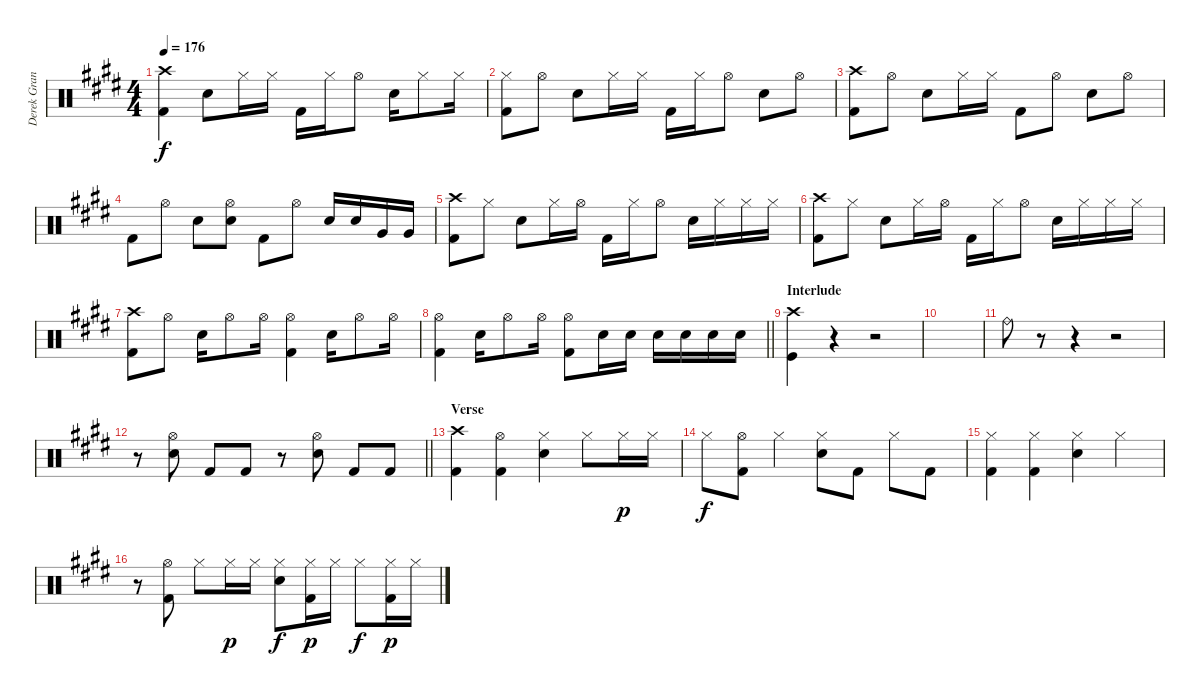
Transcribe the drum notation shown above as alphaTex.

\track ("Derek Grant - Drums" "Derek Gran") {instrument percussion}
\staff {score}
\articulation defaults
\ts (4 4)
\tempo 176
\clef neutral
\ks e
("Crash high (hit)" "Kick (hit) 2").4{dy f} "Snare (hit) 2".8 "Hi-Hat (closed)".16 "Hi-Hat (closed)".16 "Kick (hit) 2".16 "Hi-Hat (closed)".16 "Hi-Hat (open)".8 "Snare (hit) 2".16 "Hi-Hat (closed)".8 "Hi-Hat (closed)".16 |
("Hi-Hat (closed)" "Kick (hit) 2").8 "Hi-Hat (open)".8 "Snare (hit) 2".8 "Hi-Hat (closed)".16 "Hi-Hat (closed)".16 "Kick (hit) 2".16 "Hi-Hat (closed)".16 "Hi-Hat (open)".8 "Snare (hit) 2".8 "Hi-Hat (open)".8 |
("Crash high (hit)" "Kick (hit) 2").8 "Hi-Hat (open)".8 "Snare (hit) 2".8 "Hi-Hat (closed)".16 "Hi-Hat (closed)".16 "Kick (hit) 2".8 "Hi-Hat (open)".8 "Snare (hit) 2".8 "Hi-Hat (open)".8 |
"Kick (hit) 2".8 "Hi-Hat (open)".8 "Snare (hit) 2".8 ("Snare (hit) 2" "Hi-Hat (open)").8 "Kick (hit) 2".8 "Hi-Hat (open)".8 "Snare (hit) 2".16 "Snare (hit) 2".16 "Very Low Tom (hit)".16 "Very Low Tom (hit)".16 |
("Crash high (hit)" "Kick (hit) 2").8 "Hi-Hat (closed)".8 "Snare (hit) 2".8 "Hi-Hat (closed)".16 "Hi-Hat (open)".16 "Kick (hit) 2".16 "Hi-Hat (closed)".16 "Hi-Hat (open)".8 "Snare (hit) 2".16 "Hi-Hat (closed)".16 "Hi-Hat (closed)".16 "Hi-Hat (closed)".16 |
("Crash high (hit)" "Kick (hit) 2").8 "Hi-Hat (closed)".8 "Snare (hit) 2".8 "Hi-Hat (closed)".16 "Hi-Hat (open)".16 "Kick (hit) 2".16 "Hi-Hat (closed)".16 "Hi-Hat (open)".8 "Snare (hit) 2".16 "Hi-Hat (closed)".16 "Hi-Hat (closed)".16 "Hi-Hat (closed)".16 |
("Crash high (hit)" "Kick (hit) 2").8 "Hi-Hat (open)".8 "Snare (hit) 2".16 "Hi-Hat (open)".8 "Hi-Hat (open)".16 ("Kick (hit) 2" "Hi-Hat (open)").4 "Snare (hit) 2".16 "Hi-Hat (open)".8 "Hi-Hat (open)".16 |
\barLineRight lightlight
("Kick (hit) 2" "Hi-Hat (open)").4 "Snare (hit) 2".16 "Hi-Hat (open)".8 "Hi-Hat (open)".16 ("Kick (hit) 2" "Hi-Hat (open)").8 "Snare (hit) 2".16 "Snare (hit) 2".16 "Snare (hit) 2".16 "Snare (hit) 2".16 "Snare (hit) 2".16 "Snare (hit) 2".16 |
\section ("" "Interlude")
("Kick (hit)" "Crash high (hit)").4 r.4 r.2 |
|
"Ride (bell)".8 r.8 r.4 r.2 |
\barLineRight lightlight
r.8 ("Snare (hit) 2" "Hi-Hat (open)").8 "Kick (hit) 2".8 "Kick (hit) 2".8 r.8 ("Snare (hit) 2" "Hi-Hat (open)").8 "Kick (hit) 2".8 "Kick (hit) 2".8 |
\section ("" "Verse")
("Crash high (hit)" "Kick (hit) 2").4 ("Kick (hit) 2" "Hi-Hat (open)").4 ("Electric Snare (hit)" "Hi-Hat (closed)").4 "Hi-Hat (closed)".8 "Hi-Hat (closed)".16{dy p} "Hi-Hat (closed)".16 |
"Hi-Hat (closed)".8{dy f} ("Hi-Hat (open)" "Kick (hit) 2").8 "Hi-Hat (closed)".4 ("Snare (hit) 2" "Hi-Hat (closed)").8 "Kick (hit) 2".8 "Hi-Hat (closed)".8 "Kick (hit) 2".8 |
("Kick (hit) 2" "Hi-Hat (closed)").4 ("Kick (hit) 2" "Hi-Hat (closed)").4 ("Snare (hit) 2" "Hi-Hat (closed)").4 "Hi-Hat (closed)".4 |
r.8 ("Hi-Hat (open)" "Kick (hit) 2").8 "Hi-Hat (closed)".8 "Hi-Hat (closed)".16{dy p} "Hi-Hat (closed)".16 ("Snare (hit) 2" "Hi-Hat (closed)").8{dy f} ("Kick (hit) 2" "Hi-Hat (closed)").16{dy p} "Hi-Hat (closed)".16 "Hi-Hat (closed)".8{dy f} ("Kick (hit) 2" "Hi-Hat (closed)").16{dy p} "Hi-Hat (closed)".16
